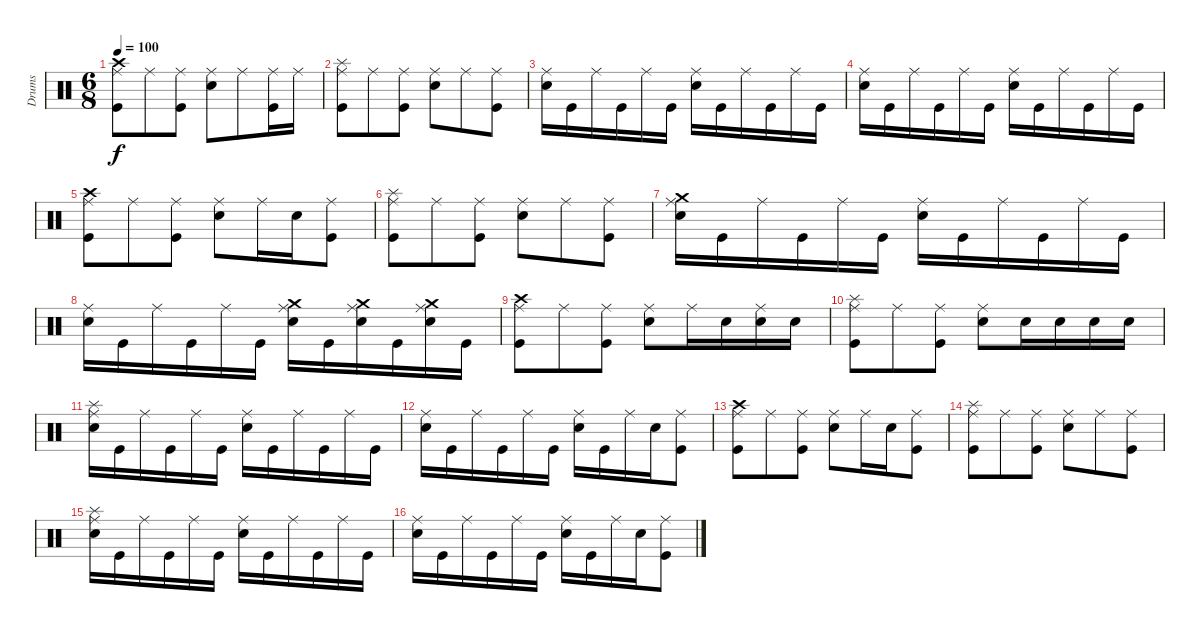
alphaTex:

\track ("Drums" "Drums") {instrument percussion}
\staff {score}
\articulation defaults
\ts (6 8)
\tempo 100
\clef neutral
\ks c
("Crash high (hit)" "Ride (middle)" "Kick (hit)").8{dy f} "Ride (middle)".8 ("Ride (middle)" "Kick (hit)").8 ("Ride (middle)" "Electric Snare (hit)").8 "Ride (middle)".8 ("Ride (middle)" "Kick (hit)").16 "Ride (middle)".16 |
("Splash (hit)" "Ride (middle)" "Kick (hit)").8 "Ride (middle)".8 ("Ride (middle)" "Kick (hit)").8 ("Ride (middle)" "Electric Snare (hit)").8 "Ride (middle)".8 ("Ride (middle)" "Kick (hit)").8 |
("Ride (middle)" "Electric Snare (hit)").16 "Kick (hit)".16 "Ride (middle)".16 "Kick (hit)".16 "Ride (middle)".16 "Kick (hit)".16 ("Ride (middle)" "Electric Snare (hit)").16 "Kick (hit)".16 "Ride (middle)".16 "Kick (hit)".16 "Ride (middle)".16 "Kick (hit)".16 |
("Ride (middle)" "Electric Snare (hit)").16 "Kick (hit)".16 "Ride (middle)".16 "Kick (hit)".16 "Ride (middle)".16 "Kick (hit)".16 ("Ride (middle)" "Electric Snare (hit)").16 "Kick (hit)".16 "Ride (middle)".16 "Kick (hit)".16 "Ride (middle)".16 "Kick (hit)".16 |
("Crash high (hit)" "Ride (middle)" "Kick (hit)").8 "Ride (middle)".8 ("Ride (middle)" "Kick (hit)").8 ("Ride (middle)" "Electric Snare (hit)").8 "Ride (middle)".16 "Electric Snare (hit)".16 ("Ride (middle)" "Kick (hit)").8 |
("Splash (hit)" "Ride (middle)" "Kick (hit)").8 "Ride (middle)".8 ("Ride (middle)" "Kick (hit)").8 ("Ride (middle)" "Electric Snare (hit)").8 "Ride (middle)".8 ("Ride (middle)" "Kick (hit)").8 |
("Crash medium (hit)" "Ride (middle)" "Electric Snare (hit)").16 "Kick (hit)".16 "Ride (middle)".16 "Kick (hit)".16 "Ride (middle)".16 "Kick (hit)".16 ("Ride (middle)" "Electric Snare (hit)").16 "Kick (hit)".16 "Ride (middle)".16 "Kick (hit)".16 "Ride (middle)".16 "Kick (hit)".16 |
("Ride (middle)" "Electric Snare (hit)").16 "Kick (hit)".16 "Ride (middle)".16 "Kick (hit)".16 "Ride (middle)".16 "Kick (hit)".16 ("Crash medium (hit)" "Ride (middle)" "Electric Snare (hit)").16 "Kick (hit)".16 ("Crash medium (hit)" "Ride (middle)" "Electric Snare (hit)").16 "Kick (hit)".16 ("Crash medium (hit)" "Ride (middle)" "Electric Snare (hit)").16 "Kick (hit)".16 |
("Crash high (hit)" "Ride (middle)" "Kick (hit)").8 "Ride (middle)".8 ("Ride (middle)" "Kick (hit)").8 ("Ride (middle)" "Electric Snare (hit)").8 "Ride (middle)".16 "Electric Snare (hit)".16 ("Ride (middle)" "Electric Snare (hit)").16 "Electric Snare (hit)".16 |
("Splash (hit)" "Ride (middle)" "Kick (hit)").8 "Ride (middle)".8 ("Ride (middle)" "Kick (hit)").8 ("Ride (middle)" "Electric Snare (hit)").8 "Electric Snare (hit)".16 "Electric Snare (hit)".16 "Electric Snare (hit)".16 "Electric Snare (hit)".16 |
("Splash (hit)" "Ride (middle)" "Electric Snare (hit)").16 "Kick (hit)".16 "Ride (middle)".16 "Kick (hit)".16 "Ride (middle)".16 "Kick (hit)".16 ("Ride (middle)" "Electric Snare (hit)").16 "Kick (hit)".16 "Ride (middle)".16 "Kick (hit)".16 "Ride (middle)".16 "Kick (hit)".16 |
("Ride (middle)" "Electric Snare (hit)").16 "Kick (hit)".16 "Ride (middle)".16 "Kick (hit)".16 "Ride (middle)".16 "Kick (hit)".16 ("Ride (middle)" "Electric Snare (hit)").16 "Kick (hit)".16 "Ride (middle)".16 "Electric Snare (hit)".16 ("Ride (middle)" "Kick (hit)").8 |
("Crash high (hit)" "Ride (middle)" "Kick (hit)").8 "Ride (middle)".8 ("Ride (middle)" "Kick (hit)").8 ("Ride (middle)" "Electric Snare (hit)").8 "Ride (middle)".16 "Electric Snare (hit)".16 ("Ride (middle)" "Kick (hit)").8 |
("Splash (hit)" "Ride (middle)" "Kick (hit)").8 "Ride (middle)".8 ("Ride (middle)" "Kick (hit)").8 ("Ride (middle)" "Electric Snare (hit)").8 "Ride (middle)".8 ("Ride (middle)" "Kick (hit)").8 |
("Splash (hit)" "Ride (middle)" "Electric Snare (hit)").16 "Kick (hit)".16 "Ride (middle)".16 "Kick (hit)".16 "Ride (middle)".16 "Kick (hit)".16 ("Ride (middle)" "Electric Snare (hit)").16 "Kick (hit)".16 "Ride (middle)".16 "Kick (hit)".16 "Ride (middle)".16 "Kick (hit)".16 |
("Ride (middle)" "Electric Snare (hit)").16 "Kick (hit)".16 "Ride (middle)".16 "Kick (hit)".16 "Ride (middle)".16 "Kick (hit)".16 ("Ride (middle)" "Electric Snare (hit)").16 "Kick (hit)".16 "Ride (middle)".16 "Electric Snare (hit)".16 ("Ride (middle)" "Kick (hit)").8
